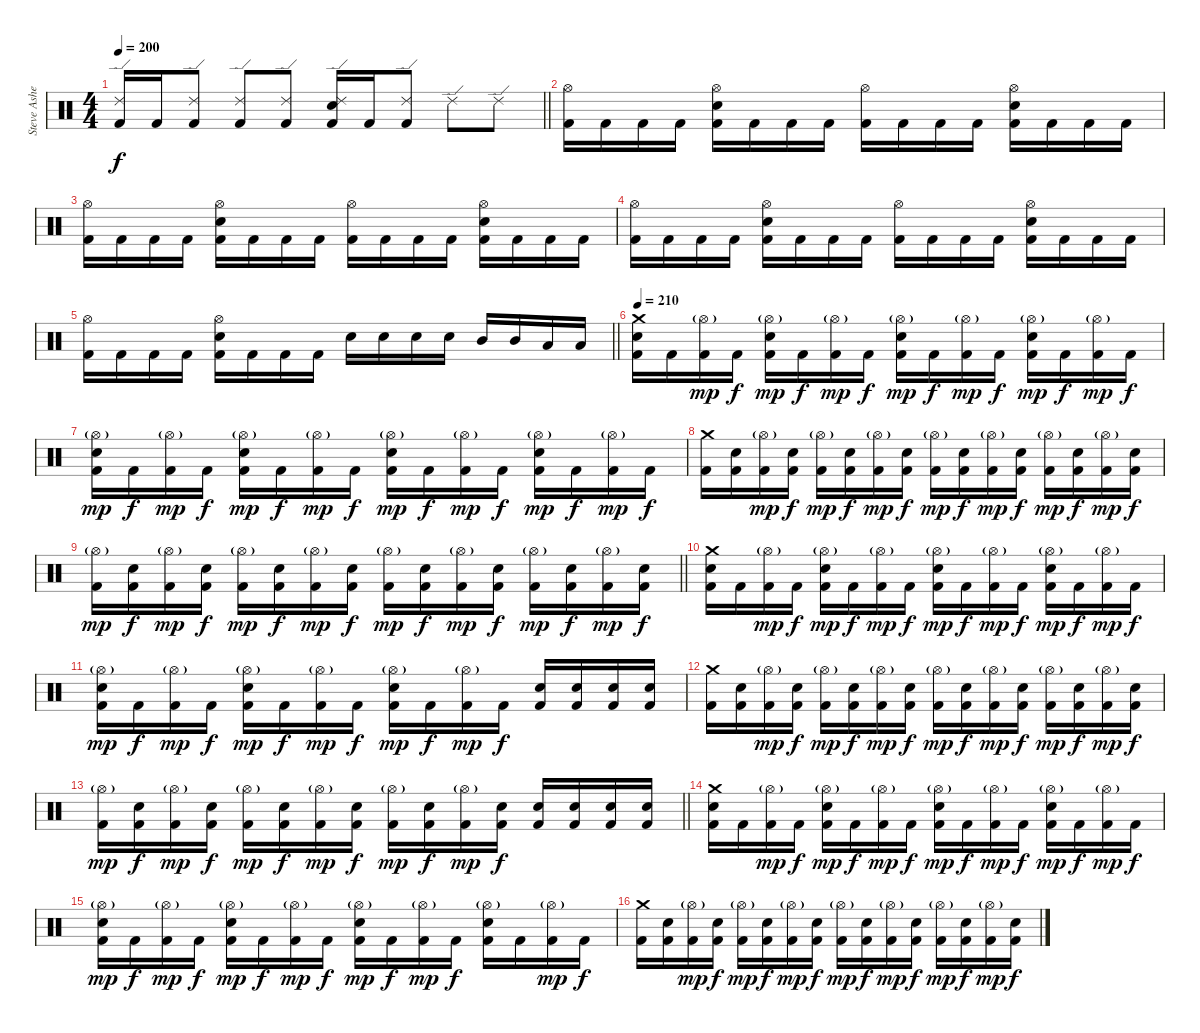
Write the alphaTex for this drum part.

\track ("Steve Asheim" "Steve Ashe") {instrument percussion}
\staff {score}
\articulation defaults
\ts (4 4)
\tempo 200
\clef neutral
\barLineRight lightlight
\ks c
("Ride (edge) 2" "Kick (hit) 2").16{dy f} "Kick (hit) 2".16 ("Ride (edge) 2" "Kick (hit) 2").8 ("Ride (edge) 2" "Kick (hit) 2").8 ("Ride (edge) 2" "Kick (hit) 2").8 ("Ride (edge) 2" "Electric Snare (hit)" "Kick (hit) 2").16 "Kick (hit) 2".16 ("Ride (edge) 2" "Kick (hit) 2").8 "Ride (edge) 2".8 "Ride (edge) 2".8 |
("Hi-Hat (open)" "Kick (hit) 2").16 "Kick (hit) 2".16 "Kick (hit) 2".16 "Kick (hit) 2".16 ("Hi-Hat (open)" "Electric Snare (hit)" "Kick (hit) 2").16 "Kick (hit) 2".16 "Kick (hit) 2".16 "Kick (hit) 2".16 ("Hi-Hat (open)" "Kick (hit) 2").16 "Kick (hit) 2".16 "Kick (hit) 2".16 "Kick (hit) 2".16 ("Hi-Hat (open)" "Electric Snare (hit)" "Kick (hit) 2").16 "Kick (hit) 2".16 "Kick (hit) 2".16 "Kick (hit) 2".16 |
("Hi-Hat (open)" "Kick (hit) 2").16 "Kick (hit) 2".16 "Kick (hit) 2".16 "Kick (hit) 2".16 ("Hi-Hat (open)" "Electric Snare (hit)" "Kick (hit) 2").16 "Kick (hit) 2".16 "Kick (hit) 2".16 "Kick (hit) 2".16 ("Hi-Hat (open)" "Kick (hit) 2").16 "Kick (hit) 2".16 "Kick (hit) 2".16 "Kick (hit) 2".16 ("Hi-Hat (open)" "Electric Snare (hit)" "Kick (hit) 2").16 "Kick (hit) 2".16 "Kick (hit) 2".16 "Kick (hit) 2".16 |
("Hi-Hat (open)" "Kick (hit) 2").16 "Kick (hit) 2".16 "Kick (hit) 2".16 "Kick (hit) 2".16 ("Hi-Hat (open)" "Electric Snare (hit)" "Kick (hit) 2").16 "Kick (hit) 2".16 "Kick (hit) 2".16 "Kick (hit) 2".16 ("Hi-Hat (open)" "Kick (hit) 2").16 "Kick (hit) 2".16 "Kick (hit) 2".16 "Kick (hit) 2".16 ("Hi-Hat (open)" "Electric Snare (hit)" "Kick (hit) 2").16 "Kick (hit) 2".16 "Kick (hit) 2".16 "Kick (hit) 2".16 |
\barLineRight lightlight
("Hi-Hat (open)" "Kick (hit) 2").16 "Kick (hit) 2".16 "Kick (hit) 2".16 "Kick (hit) 2".16 ("Hi-Hat (open)" "Electric Snare (hit)" "Kick (hit) 2").16 "Kick (hit) 2".16 "Kick (hit) 2".16 "Kick (hit) 2".16 "Electric Snare (hit)".16 "Electric Snare (hit)".16 "Electric Snare (hit)".16 "Electric Snare (hit)".16 "Mid Tom (hit)".16 "Mid Tom (hit)".16 "Low Tom (hit)".16 "Low Tom (hit)".16 |
\tempo 210
("Crash medium (hit)" "Electric Snare (hit)" "Kick (hit) 2").16 "Kick (hit) 2".16 ("Hi-Hat (open)"{g} "Kick (hit) 2").16{dy mp} "Kick (hit) 2".16{dy f} ("Hi-Hat (open)"{g} "Electric Snare (hit)" "Kick (hit) 2").16{dy mp} "Kick (hit) 2".16{dy f} ("Hi-Hat (open)"{g} "Kick (hit) 2").16{dy mp} "Kick (hit) 2".16{dy f} ("Hi-Hat (open)"{g} "Electric Snare (hit)" "Kick (hit) 2").16{dy mp} "Kick (hit) 2".16{dy f} ("Hi-Hat (open)"{g} "Kick (hit) 2").16{dy mp} "Kick (hit) 2".16{dy f} ("Hi-Hat (open)"{g} "Electric Snare (hit)" "Kick (hit) 2").16{dy mp} "Kick (hit) 2".16{dy f} ("Hi-Hat (open)"{g} "Kick (hit) 2").16{dy mp} "Kick (hit) 2".16{dy f} |
("Hi-Hat (open)"{g} "Electric Snare (hit)" "Kick (hit) 2").16{dy mp} "Kick (hit) 2".16{dy f} ("Hi-Hat (open)"{g} "Kick (hit) 2").16{dy mp} "Kick (hit) 2".16{dy f} ("Hi-Hat (open)"{g} "Electric Snare (hit)" "Kick (hit) 2").16{dy mp} "Kick (hit) 2".16{dy f} ("Hi-Hat (open)"{g} "Kick (hit) 2").16{dy mp} "Kick (hit) 2".16{dy f} ("Hi-Hat (open)"{g} "Electric Snare (hit)" "Kick (hit) 2").16{dy mp} "Kick (hit) 2".16{dy f} ("Hi-Hat (open)"{g} "Kick (hit) 2").16{dy mp} "Kick (hit) 2".16{dy f} ("Hi-Hat (open)"{g} "Electric Snare (hit)" "Kick (hit) 2").16{dy mp} "Kick (hit) 2".16{dy f} ("Hi-Hat (open)"{g} "Kick (hit) 2").16{dy mp} "Kick (hit) 2".16{dy f} |
("Crash medium (hit)" "Kick (hit) 2").16 ("Electric Snare (hit)" "Kick (hit) 2").16 ("Hi-Hat (open)"{g} "Kick (hit) 2").16{dy mp} ("Electric Snare (hit)" "Kick (hit) 2").16{dy f} ("Hi-Hat (open)"{g} "Kick (hit) 2").16{dy mp} ("Electric Snare (hit)" "Kick (hit) 2").16{dy f} ("Hi-Hat (open)"{g} "Kick (hit) 2").16{dy mp} ("Electric Snare (hit)" "Kick (hit) 2").16{dy f} ("Hi-Hat (open)"{g} "Kick (hit) 2").16{dy mp} ("Electric Snare (hit)" "Kick (hit) 2").16{dy f} ("Hi-Hat (open)"{g} "Kick (hit) 2").16{dy mp} ("Electric Snare (hit)" "Kick (hit) 2").16{dy f} ("Hi-Hat (open)"{g} "Kick (hit) 2").16{dy mp} ("Electric Snare (hit)" "Kick (hit) 2").16{dy f} ("Hi-Hat (open)"{g} "Kick (hit) 2").16{dy mp} ("Electric Snare (hit)" "Kick (hit) 2").16{dy f} |
\barLineRight lightlight
("Hi-Hat (open)"{g} "Kick (hit) 2").16{dy mp} ("Electric Snare (hit)" "Kick (hit) 2").16{dy f} ("Hi-Hat (open)"{g} "Kick (hit) 2").16{dy mp} ("Electric Snare (hit)" "Kick (hit) 2").16{dy f} ("Hi-Hat (open)"{g} "Kick (hit) 2").16{dy mp} ("Electric Snare (hit)" "Kick (hit) 2").16{dy f} ("Hi-Hat (open)"{g} "Kick (hit) 2").16{dy mp} ("Electric Snare (hit)" "Kick (hit) 2").16{dy f} ("Hi-Hat (open)"{g} "Kick (hit) 2").16{dy mp} ("Electric Snare (hit)" "Kick (hit) 2").16{dy f} ("Hi-Hat (open)"{g} "Kick (hit) 2").16{dy mp} ("Electric Snare (hit)" "Kick (hit) 2").16{dy f} ("Hi-Hat (open)"{g} "Kick (hit) 2").16{dy mp} ("Electric Snare (hit)" "Kick (hit) 2").16{dy f} ("Hi-Hat (open)"{g} "Kick (hit) 2").16{dy mp} ("Electric Snare (hit)" "Kick (hit) 2").16{dy f} |
("Crash medium (hit)" "Electric Snare (hit)" "Kick (hit) 2").16 "Kick (hit) 2".16 ("Hi-Hat (open)"{g} "Kick (hit) 2").16{dy mp} "Kick (hit) 2".16{dy f} ("Hi-Hat (open)"{g} "Electric Snare (hit)" "Kick (hit) 2").16{dy mp} "Kick (hit) 2".16{dy f} ("Hi-Hat (open)"{g} "Kick (hit) 2").16{dy mp} "Kick (hit) 2".16{dy f} ("Hi-Hat (open)"{g} "Electric Snare (hit)" "Kick (hit) 2").16{dy mp} "Kick (hit) 2".16{dy f} ("Hi-Hat (open)"{g} "Kick (hit) 2").16{dy mp} "Kick (hit) 2".16{dy f} ("Hi-Hat (open)"{g} "Electric Snare (hit)" "Kick (hit) 2").16{dy mp} "Kick (hit) 2".16{dy f} ("Hi-Hat (open)"{g} "Kick (hit) 2").16{dy mp} "Kick (hit) 2".16{dy f} |
("Hi-Hat (open)"{g} "Electric Snare (hit)" "Kick (hit) 2").16{dy mp} "Kick (hit) 2".16{dy f} ("Hi-Hat (open)"{g} "Kick (hit) 2").16{dy mp} "Kick (hit) 2".16{dy f} ("Hi-Hat (open)"{g} "Electric Snare (hit)" "Kick (hit) 2").16{dy mp} "Kick (hit) 2".16{dy f} ("Hi-Hat (open)"{g} "Kick (hit) 2").16{dy mp} "Kick (hit) 2".16{dy f} ("Hi-Hat (open)"{g} "Electric Snare (hit)" "Kick (hit) 2").16{dy mp} "Kick (hit) 2".16{dy f} ("Hi-Hat (open)"{g} "Kick (hit) 2").16{dy mp} "Kick (hit) 2".16{dy f} ("Electric Snare (hit)" "Kick (hit) 2").16 ("Electric Snare (hit)" "Kick (hit) 2").16 ("Electric Snare (hit)" "Kick (hit) 2").16 ("Electric Snare (hit)" "Kick (hit) 2").16 |
("Crash medium (hit)" "Kick (hit) 2").16 ("Electric Snare (hit)" "Kick (hit) 2").16 ("Hi-Hat (open)"{g} "Kick (hit) 2").16{dy mp} ("Electric Snare (hit)" "Kick (hit) 2").16{dy f} ("Hi-Hat (open)"{g} "Kick (hit) 2").16{dy mp} ("Electric Snare (hit)" "Kick (hit) 2").16{dy f} ("Hi-Hat (open)"{g} "Kick (hit) 2").16{dy mp} ("Electric Snare (hit)" "Kick (hit) 2").16{dy f} ("Hi-Hat (open)"{g} "Kick (hit) 2").16{dy mp} ("Electric Snare (hit)" "Kick (hit) 2").16{dy f} ("Hi-Hat (open)"{g} "Kick (hit) 2").16{dy mp} ("Electric Snare (hit)" "Kick (hit) 2").16{dy f} ("Hi-Hat (open)"{g} "Kick (hit) 2").16{dy mp} ("Electric Snare (hit)" "Kick (hit) 2").16{dy f} ("Hi-Hat (open)"{g} "Kick (hit) 2").16{dy mp} ("Electric Snare (hit)" "Kick (hit) 2").16{dy f} |
\barLineRight lightlight
("Hi-Hat (open)"{g} "Kick (hit) 2").16{dy mp} ("Electric Snare (hit)" "Kick (hit) 2").16{dy f} ("Hi-Hat (open)"{g} "Kick (hit) 2").16{dy mp} ("Electric Snare (hit)" "Kick (hit) 2").16{dy f} ("Hi-Hat (open)"{g} "Kick (hit) 2").16{dy mp} ("Electric Snare (hit)" "Kick (hit) 2").16{dy f} ("Hi-Hat (open)"{g} "Kick (hit) 2").16{dy mp} ("Electric Snare (hit)" "Kick (hit) 2").16{dy f} ("Hi-Hat (open)"{g} "Kick (hit) 2").16{dy mp} ("Electric Snare (hit)" "Kick (hit) 2").16{dy f} ("Hi-Hat (open)"{g} "Kick (hit) 2").16{dy mp} ("Electric Snare (hit)" "Kick (hit) 2").16{dy f} ("Electric Snare (hit)" "Kick (hit) 2").16 ("Electric Snare (hit)" "Kick (hit) 2").16 ("Electric Snare (hit)" "Kick (hit) 2").16 ("Electric Snare (hit)" "Kick (hit) 2").16 |
("Crash medium (hit)" "Electric Snare (hit)" "Kick (hit) 2").16 "Kick (hit) 2".16 ("Hi-Hat (open)"{g} "Kick (hit) 2").16{dy mp} "Kick (hit) 2".16{dy f} ("Hi-Hat (open)"{g} "Electric Snare (hit)" "Kick (hit) 2").16{dy mp} "Kick (hit) 2".16{dy f} ("Hi-Hat (open)"{g} "Kick (hit) 2").16{dy mp} "Kick (hit) 2".16{dy f} ("Hi-Hat (open)"{g} "Electric Snare (hit)" "Kick (hit) 2").16{dy mp} "Kick (hit) 2".16{dy f} ("Hi-Hat (open)"{g} "Kick (hit) 2").16{dy mp} "Kick (hit) 2".16{dy f} ("Hi-Hat (open)"{g} "Electric Snare (hit)" "Kick (hit) 2").16{dy mp} "Kick (hit) 2".16{dy f} ("Hi-Hat (open)"{g} "Kick (hit) 2").16{dy mp} "Kick (hit) 2".16{dy f} |
("Hi-Hat (open)"{g} "Electric Snare (hit)" "Kick (hit) 2").16{dy mp} "Kick (hit) 2".16{dy f} ("Hi-Hat (open)"{g} "Kick (hit) 2").16{dy mp} "Kick (hit) 2".16{dy f} ("Hi-Hat (open)"{g} "Electric Snare (hit)" "Kick (hit) 2").16{dy mp} "Kick (hit) 2".16{dy f} ("Hi-Hat (open)"{g} "Kick (hit) 2").16{dy mp} "Kick (hit) 2".16{dy f} ("Hi-Hat (open)"{g} "Electric Snare (hit)" "Kick (hit) 2").16{dy mp} "Kick (hit) 2".16{dy f} ("Hi-Hat (open)"{g} "Kick (hit) 2").16{dy mp} "Kick (hit) 2".16{dy f} ("Hi-Hat (open)"{g} "Electric Snare (hit)" "Kick (hit) 2").16 "Kick (hit) 2".16 ("Hi-Hat (open)"{g} "Kick (hit) 2").16{dy mp} "Kick (hit) 2".16{dy f} |
("Crash medium (hit)" "Kick (hit) 2").16 ("Electric Snare (hit)" "Kick (hit) 2").16 ("Hi-Hat (open)"{g} "Kick (hit) 2").16{dy mp} ("Electric Snare (hit)" "Kick (hit) 2").16{dy f} ("Hi-Hat (open)"{g} "Kick (hit) 2").16{dy mp} ("Electric Snare (hit)" "Kick (hit) 2").16{dy f} ("Hi-Hat (open)"{g} "Kick (hit) 2").16{dy mp} ("Electric Snare (hit)" "Kick (hit) 2").16{dy f} ("Hi-Hat (open)"{g} "Kick (hit) 2").16{dy mp} ("Electric Snare (hit)" "Kick (hit) 2").16{dy f} ("Hi-Hat (open)"{g} "Kick (hit) 2").16{dy mp} ("Electric Snare (hit)" "Kick (hit) 2").16{dy f} ("Hi-Hat (open)"{g} "Kick (hit) 2").16{dy mp} ("Electric Snare (hit)" "Kick (hit) 2").16{dy f} ("Hi-Hat (open)"{g} "Kick (hit) 2").16{dy mp} ("Electric Snare (hit)" "Kick (hit) 2").16{dy f}
